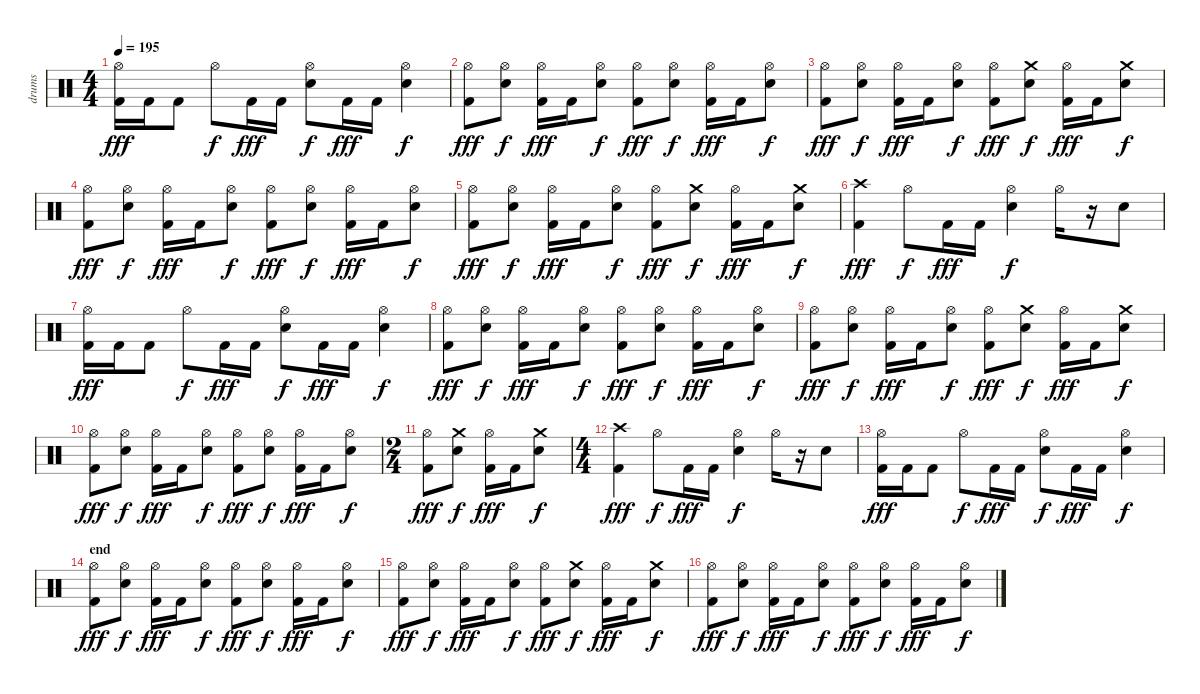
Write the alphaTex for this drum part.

\track ("drums" "drums") {instrument percussion}
\staff {score}
\articulation defaults
\ts (4 4)
\tempo 195
\clef neutral
\ks c
("Hi-Hat (open)" "Kick (hit) 2").16{dy fff} "Kick (hit) 2".16 "Kick (hit) 2".8 "Hi-Hat (open)".8{dy f} "Kick (hit) 2".16{dy fff} "Kick (hit) 2".16 ("Hi-Hat (open)" "Snare (hit) 2").8{dy f} "Kick (hit) 2".16{dy fff} "Kick (hit) 2".16 ("Hi-Hat (open)" "Snare (hit) 2").4{dy f} |
("Hi-Hat (open)" "Kick (hit) 2").8{dy fff} ("Hi-Hat (open)" "Snare (hit) 2").8{dy f} ("Hi-Hat (open)" "Kick (hit) 2").16{dy fff} "Kick (hit) 2".16 ("Hi-Hat (open)" "Snare (hit) 2").8{dy f} ("Hi-Hat (open)" "Kick (hit) 2").8{dy fff} ("Hi-Hat (open)" "Snare (hit) 2").8{dy f} ("Hi-Hat (open)" "Kick (hit) 2").16{dy fff} "Kick (hit) 2".16 ("Hi-Hat (open)" "Snare (hit) 2").8{dy f} |
("Hi-Hat (open)" "Kick (hit) 2").8{dy fff} ("Hi-Hat (open)" "Snare (hit) 2").8{dy f} ("Hi-Hat (open)" "Kick (hit) 2").16{dy fff} "Kick (hit) 2".16 ("Hi-Hat (open)" "Snare (hit) 2").8{dy f} ("Hi-Hat (open)" "Kick (hit) 2").8{dy fff} ("Crash medium (hit)" "Snare (hit) 2").8{dy f} ("Hi-Hat (open)" "Kick (hit) 2").16{dy fff} "Kick (hit) 2".16 ("Crash medium (hit)" "Snare (hit) 2").8{dy f} |
("Hi-Hat (open)" "Kick (hit) 2").8{dy fff} ("Hi-Hat (open)" "Snare (hit) 2").8{dy f} ("Hi-Hat (open)" "Kick (hit) 2").16{dy fff} "Kick (hit) 2".16 ("Hi-Hat (open)" "Snare (hit) 2").8{dy f} ("Hi-Hat (open)" "Kick (hit) 2").8{dy fff} ("Hi-Hat (open)" "Snare (hit) 2").8{dy f} ("Hi-Hat (open)" "Kick (hit) 2").16{dy fff} "Kick (hit) 2".16 ("Hi-Hat (open)" "Snare (hit) 2").8{dy f} |
("Hi-Hat (open)" "Kick (hit) 2").8{dy fff} ("Hi-Hat (open)" "Snare (hit) 2").8{dy f} ("Hi-Hat (open)" "Kick (hit) 2").16{dy fff} "Kick (hit) 2".16 ("Hi-Hat (open)" "Snare (hit) 2").8{dy f} ("Hi-Hat (open)" "Kick (hit) 2").8{dy fff} ("Crash medium (hit)" "Snare (hit) 2").8{dy f} ("Hi-Hat (open)" "Kick (hit) 2").16{dy fff} "Kick (hit) 2".16 ("Crash medium (hit)" "Snare (hit) 2").8{dy f} |
("Crash high (hit)" "Kick (hit) 2").4{dy fff} "Hi-Hat (open)".8{dy f} "Kick (hit) 2".16{dy fff} "Kick (hit) 2".16 ("Hi-Hat (open)" "Snare (hit) 2").4{dy f} "Hi-Hat (open)".16 r.16 "Snare (hit) 2".8 |
("Hi-Hat (open)" "Kick (hit) 2").16{dy fff} "Kick (hit) 2".16 "Kick (hit) 2".8 "Hi-Hat (open)".8{dy f} "Kick (hit) 2".16{dy fff} "Kick (hit) 2".16 ("Hi-Hat (open)" "Snare (hit) 2").8{dy f} "Kick (hit) 2".16{dy fff} "Kick (hit) 2".16 ("Hi-Hat (open)" "Snare (hit) 2").4{dy f} |
("Hi-Hat (open)" "Kick (hit) 2").8{dy fff} ("Hi-Hat (open)" "Snare (hit) 2").8{dy f} ("Hi-Hat (open)" "Kick (hit) 2").16{dy fff} "Kick (hit) 2".16 ("Hi-Hat (open)" "Snare (hit) 2").8{dy f} ("Hi-Hat (open)" "Kick (hit) 2").8{dy fff} ("Hi-Hat (open)" "Snare (hit) 2").8{dy f} ("Hi-Hat (open)" "Kick (hit) 2").16{dy fff} "Kick (hit) 2".16 ("Hi-Hat (open)" "Snare (hit) 2").8{dy f} |
("Hi-Hat (open)" "Kick (hit) 2").8{dy fff} ("Hi-Hat (open)" "Snare (hit) 2").8{dy f} ("Hi-Hat (open)" "Kick (hit) 2").16{dy fff} "Kick (hit) 2".16 ("Hi-Hat (open)" "Snare (hit) 2").8{dy f} ("Hi-Hat (open)" "Kick (hit) 2").8{dy fff} ("Crash medium (hit)" "Snare (hit) 2").8{dy f} ("Hi-Hat (open)" "Kick (hit) 2").16{dy fff} "Kick (hit) 2".16 ("Crash medium (hit)" "Snare (hit) 2").8{dy f} |
("Hi-Hat (open)" "Kick (hit) 2").8{dy fff} ("Hi-Hat (open)" "Snare (hit) 2").8{dy f} ("Hi-Hat (open)" "Kick (hit) 2").16{dy fff} "Kick (hit) 2".16 ("Hi-Hat (open)" "Snare (hit) 2").8{dy f} ("Hi-Hat (open)" "Kick (hit) 2").8{dy fff} ("Hi-Hat (open)" "Snare (hit) 2").8{dy f} ("Hi-Hat (open)" "Kick (hit) 2").16{dy fff} "Kick (hit) 2".16 ("Hi-Hat (open)" "Snare (hit) 2").8{dy f} |
\ts (2 4)
("Hi-Hat (open)" "Kick (hit) 2").8{dy fff} ("Crash medium (hit)" "Snare (hit) 2").8{dy f} ("Hi-Hat (open)" "Kick (hit) 2").16{dy fff} "Kick (hit) 2".16 ("Crash medium (hit)" "Snare (hit) 2").8{dy f} |
\ts (4 4)
("Crash high (hit)" "Kick (hit) 2").4{dy fff} "Hi-Hat (open)".8{dy f} "Kick (hit) 2".16{dy fff} "Kick (hit) 2".16 ("Hi-Hat (open)" "Snare (hit) 2").4{dy f} "Hi-Hat (open)".16 r.16 "Snare (hit) 2".8 |
("Hi-Hat (open)" "Kick (hit) 2").16{dy fff} "Kick (hit) 2".16 "Kick (hit) 2".8 "Hi-Hat (open)".8{dy f} "Kick (hit) 2".16{dy fff} "Kick (hit) 2".16 ("Hi-Hat (open)" "Snare (hit) 2").8{dy f} "Kick (hit) 2".16{dy fff} "Kick (hit) 2".16 ("Hi-Hat (open)" "Snare (hit) 2").4{dy f} |
\section ("" "end")
("Hi-Hat (open)" "Kick (hit) 2").8{dy fff} ("Hi-Hat (open)" "Snare (hit) 2").8{dy f} ("Hi-Hat (open)" "Kick (hit) 2").16{dy fff} "Kick (hit) 2".16 ("Hi-Hat (open)" "Snare (hit) 2").8{dy f} ("Hi-Hat (open)" "Kick (hit) 2").8{dy fff} ("Hi-Hat (open)" "Snare (hit) 2").8{dy f} ("Hi-Hat (open)" "Kick (hit) 2").16{dy fff} "Kick (hit) 2".16 ("Hi-Hat (open)" "Snare (hit) 2").8{dy f} |
("Hi-Hat (open)" "Kick (hit) 2").8{dy fff} ("Hi-Hat (open)" "Snare (hit) 2").8{dy f} ("Hi-Hat (open)" "Kick (hit) 2").16{dy fff} "Kick (hit) 2".16 ("Hi-Hat (open)" "Snare (hit) 2").8{dy f} ("Hi-Hat (open)" "Kick (hit) 2").8{dy fff} ("Crash medium (hit)" "Snare (hit) 2").8{dy f} ("Hi-Hat (open)" "Kick (hit) 2").16{dy fff} "Kick (hit) 2".16 ("Crash medium (hit)" "Snare (hit) 2").8{dy f} |
("Hi-Hat (open)" "Kick (hit) 2").8{dy fff} ("Hi-Hat (open)" "Snare (hit) 2").8{dy f} ("Hi-Hat (open)" "Kick (hit) 2").16{dy fff} "Kick (hit) 2".16 ("Hi-Hat (open)" "Snare (hit) 2").8{dy f} ("Hi-Hat (open)" "Kick (hit) 2").8{dy fff} ("Hi-Hat (open)" "Snare (hit) 2").8{dy f} ("Hi-Hat (open)" "Kick (hit) 2").16{dy fff} "Kick (hit) 2".16 ("Hi-Hat (open)" "Snare (hit) 2").8{dy f}
